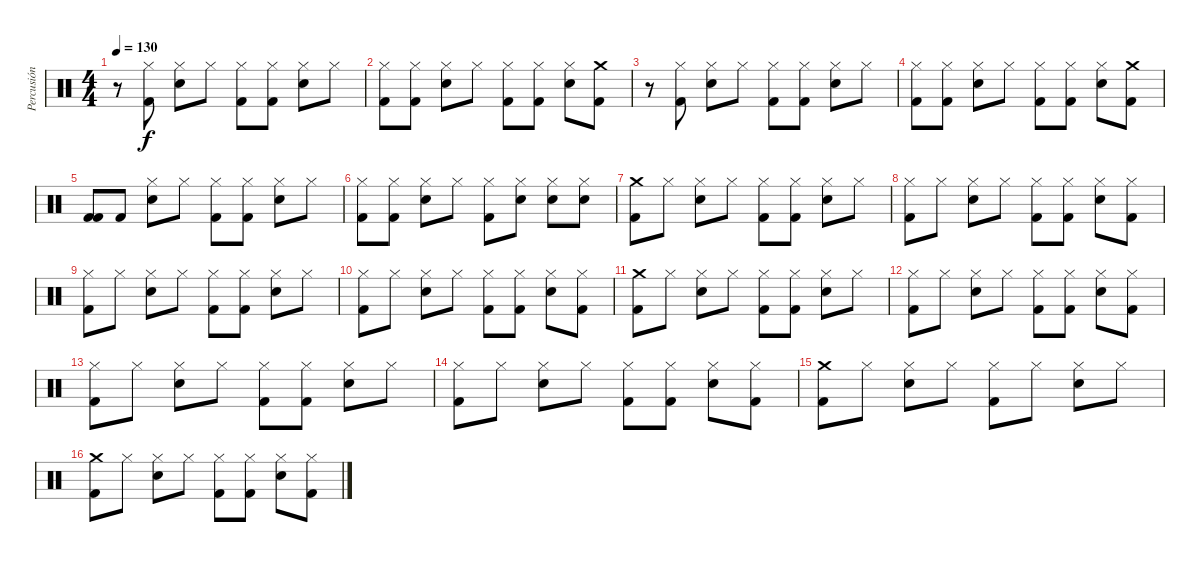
\track ("Percusión" "Percusión") {instrument percussion}
\staff {score}
\articulation defaults
\ts (4 4)
\tempo 130
\clef neutral
\ks c
r.8{dy f} ("Kick (hit) 2" "Hi-Hat (closed)").8 ("Snare (hit) 2" "Hi-Hat (closed)").8 "Hi-Hat (closed)".8 ("Kick (hit) 2" "Hi-Hat (closed)").8 ("Kick (hit) 2" "Hi-Hat (closed)").8 ("Snare (hit) 2" "Hi-Hat (closed)").8 "Hi-Hat (closed)".8 |
("Kick (hit) 2" "Hi-Hat (closed)").8 ("Kick (hit) 2" "Hi-Hat (closed)").8 ("Snare (hit) 2" "Hi-Hat (closed)").8 "Hi-Hat (closed)".8 ("Kick (hit) 2" "Hi-Hat (closed)").8 ("Kick (hit) 2" "Hi-Hat (closed)").8 ("Snare (hit) 2" "Hi-Hat (closed)").8 ("Kick (hit) 2" "Crash medium (hit)").8 |
r.8 ("Kick (hit) 2" "Hi-Hat (closed)").8 ("Snare (hit) 2" "Hi-Hat (closed)").8 "Hi-Hat (closed)".8 ("Kick (hit) 2" "Hi-Hat (closed)").8 ("Kick (hit) 2" "Hi-Hat (closed)").8 ("Snare (hit) 2" "Hi-Hat (closed)").8 "Hi-Hat (closed)".8 |
("Kick (hit) 2" "Hi-Hat (closed)").8 ("Kick (hit) 2" "Hi-Hat (closed)").8 ("Snare (hit) 2" "Hi-Hat (closed)").8 "Hi-Hat (closed)".8 ("Kick (hit) 2" "Hi-Hat (closed)").8 ("Kick (hit) 2" "Hi-Hat (closed)").8 ("Snare (hit) 2" "Hi-Hat (closed)").8 ("Kick (hit) 2" "Crash medium (hit)").8 |
("Kick (hit) 2" "Kick (hit) 2").8 "Kick (hit) 2".8 ("Snare (hit) 2" "Hi-Hat (closed)").8 "Hi-Hat (closed)".8 ("Kick (hit) 2" "Hi-Hat (closed)").8 ("Kick (hit) 2" "Hi-Hat (closed)").8 ("Snare (hit) 2" "Hi-Hat (closed)").8 "Hi-Hat (closed)".8 |
("Kick (hit) 2" "Hi-Hat (closed)").8 ("Kick (hit) 2" "Hi-Hat (closed)").8 ("Snare (hit) 2" "Hi-Hat (closed)").8 "Hi-Hat (closed)".8 ("Kick (hit) 2" "Hi-Hat (closed)").8 ("Snare (hit) 2" "Hi-Hat (closed)").8 ("Snare (hit) 2" "Hi-Hat (closed)").8 ("Snare (hit) 2" "Hi-Hat (closed)").8 |
("Kick (hit) 2" "Crash medium (hit)").8 "Hi-Hat (closed)".8 ("Snare (hit) 2" "Hi-Hat (closed)").8 "Hi-Hat (closed)".8 ("Kick (hit) 2" "Hi-Hat (closed)").8 ("Kick (hit) 2" "Hi-Hat (closed)").8 ("Snare (hit) 2" "Hi-Hat (closed)").8 "Hi-Hat (closed)".8 |
("Kick (hit) 2" "Hi-Hat (closed)").8 "Hi-Hat (closed)".8 ("Snare (hit) 2" "Hi-Hat (closed)").8 "Hi-Hat (closed)".8 ("Kick (hit) 2" "Hi-Hat (closed)").8 ("Kick (hit) 2" "Hi-Hat (closed)").8 ("Snare (hit) 2" "Hi-Hat (closed)").8 ("Kick (hit) 2" "Hi-Hat (closed)").8 |
("Kick (hit) 2" "Hi-Hat (closed)").8 "Hi-Hat (closed)".8 ("Snare (hit) 2" "Hi-Hat (closed)").8 "Hi-Hat (closed)".8 ("Kick (hit) 2" "Hi-Hat (closed)").8 ("Kick (hit) 2" "Hi-Hat (closed)").8 ("Snare (hit) 2" "Hi-Hat (closed)").8 "Hi-Hat (closed)".8 |
("Kick (hit) 2" "Hi-Hat (closed)").8 "Hi-Hat (closed)".8 ("Snare (hit) 2" "Hi-Hat (closed)").8 "Hi-Hat (closed)".8 ("Kick (hit) 2" "Hi-Hat (closed)").8 ("Kick (hit) 2" "Hi-Hat (closed)").8 ("Snare (hit) 2" "Hi-Hat (closed)").8 ("Kick (hit) 2" "Hi-Hat (closed)").8 |
("Kick (hit) 2" "Crash medium (hit)").8 "Hi-Hat (closed)".8 ("Snare (hit) 2" "Hi-Hat (closed)").8 "Hi-Hat (closed)".8 ("Kick (hit) 2" "Hi-Hat (closed)").8 ("Kick (hit) 2" "Hi-Hat (closed)").8 ("Snare (hit) 2" "Hi-Hat (closed)").8 "Hi-Hat (closed)".8 |
("Kick (hit) 2" "Hi-Hat (closed)").8 "Hi-Hat (closed)".8 ("Snare (hit) 2" "Hi-Hat (closed)").8 "Hi-Hat (closed)".8 ("Kick (hit) 2" "Hi-Hat (closed)").8 ("Kick (hit) 2" "Hi-Hat (closed)").8 ("Snare (hit) 2" "Hi-Hat (closed)").8 ("Kick (hit) 2" "Hi-Hat (closed)").8 |
("Kick (hit) 2" "Hi-Hat (closed)").8 "Hi-Hat (closed)".8 ("Snare (hit) 2" "Hi-Hat (closed)").8 "Hi-Hat (closed)".8 ("Kick (hit) 2" "Hi-Hat (closed)").8 ("Kick (hit) 2" "Hi-Hat (closed)").8 ("Snare (hit) 2" "Hi-Hat (closed)").8 "Hi-Hat (closed)".8 |
("Kick (hit) 2" "Hi-Hat (closed)").8 "Hi-Hat (closed)".8 ("Snare (hit) 2" "Hi-Hat (closed)").8 "Hi-Hat (closed)".8 ("Kick (hit) 2" "Hi-Hat (closed)").8 ("Kick (hit) 2" "Hi-Hat (closed)").8 ("Snare (hit) 2" "Hi-Hat (closed)").8 ("Kick (hit) 2" "Hi-Hat (closed)").8 |
("Kick (hit) 2" "Crash medium (hit)").8 "Hi-Hat (closed)".8 ("Snare (hit) 2" "Hi-Hat (closed)").8 "Hi-Hat (closed)".8 ("Kick (hit) 2" "Hi-Hat (closed)").8 "Hi-Hat (closed)".8 ("Snare (hit) 2" "Hi-Hat (closed)").8 "Hi-Hat (closed)".8 |
("Kick (hit) 2" "Crash medium (hit)").8 "Hi-Hat (closed)".8 ("Snare (hit) 2" "Hi-Hat (closed)").8 "Hi-Hat (closed)".8 ("Kick (hit) 2" "Hi-Hat (closed)").8 ("Kick (hit) 2" "Hi-Hat (closed)").8 ("Snare (hit) 2" "Hi-Hat (closed)").8 ("Kick (hit) 2" "Hi-Hat (closed)").8
